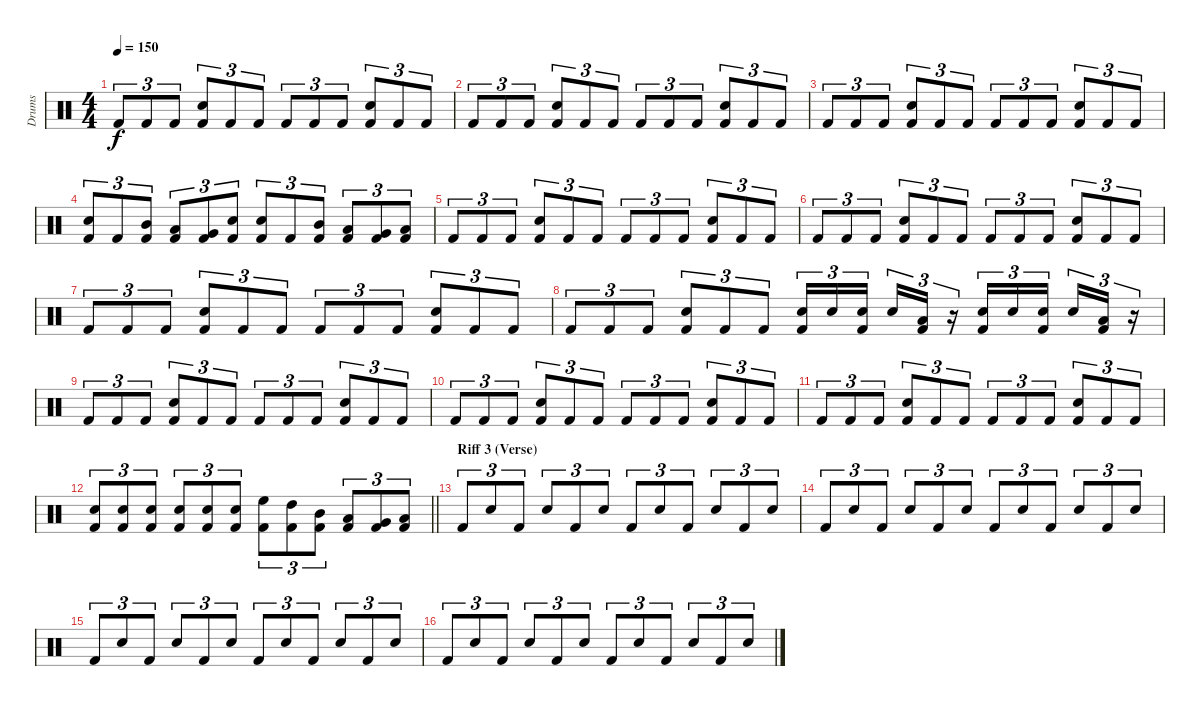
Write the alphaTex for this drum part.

\track ("Drums" "Drums") {instrument percussion}
\staff {score}
\articulation defaults
\ts (4 4)
\tempo 150
\clef neutral
\ks c "Kick (hit) 2".8{tu (3 2) dy f} "Kick (hit) 2".8{tu (3 2)} "Kick (hit) 2".8{tu (3 2)}
("Snare (hit) 2" "Kick (hit) 2").8{tu (3 2)} "Kick (hit) 2".8{tu (3 2)} "Kick (hit) 2".8{tu (3 2)} "Kick (hit) 2".8{tu (3 2)} "Kick (hit) 2".8{tu (3 2)} "Kick (hit) 2".8{tu (3 2)} ("Snare (hit) 2" "Kick (hit) 2").8{tu (3 2)} "Kick (hit) 2".8{tu (3 2)} "Kick (hit) 2".8{tu (3 2)} |
"Kick (hit) 2".8{tu (3 2)} "Kick (hit) 2".8{tu (3 2)} "Kick (hit) 2".8{tu (3 2)} ("Snare (hit) 2" "Kick (hit) 2").8{tu (3 2)} "Kick (hit) 2".8{tu (3 2)} "Kick (hit) 2".8{tu (3 2)} "Kick (hit) 2".8{tu (3 2)} "Kick (hit) 2".8{tu (3 2)} "Kick (hit) 2".8{tu (3 2)} ("Snare (hit) 2" "Kick (hit) 2").8{tu (3 2)} "Kick (hit) 2".8{tu (3 2)} "Kick (hit) 2".8{tu (3 2)} |
"Kick (hit) 2".8{tu (3 2)} "Kick (hit) 2".8{tu (3 2)} "Kick (hit) 2".8{tu (3 2)} ("Snare (hit) 2" "Kick (hit) 2").8{tu (3 2)} "Kick (hit) 2".8{tu (3 2)} "Kick (hit) 2".8{tu (3 2)} "Kick (hit) 2".8{tu (3 2)} "Kick (hit) 2".8{tu (3 2)} "Kick (hit) 2".8{tu (3 2)} ("Snare (hit) 2" "Kick (hit) 2").8{tu (3 2)} "Kick (hit) 2".8{tu (3 2)} "Kick (hit) 2".8{tu (3 2)} |
("Snare (hit) 2" "Kick (hit) 2").8{tu (3 2)} "Kick (hit) 2".8{tu (3 2)} ("Mid Tom (hit)" "Kick (hit) 2").8{tu (3 2)} ("Low Tom (hit)" "Kick (hit) 2").8{tu (3 2)} ("Very Low Tom (hit)" "Kick (hit) 2").8{tu (3 2)} ("Snare (hit) 2" "Kick (hit) 2").8{tu (3 2)} ("Snare (hit) 2" "Kick (hit) 2").8{tu (3 2)} "Kick (hit) 2".8{tu (3 2)} ("Mid Tom (hit)" "Kick (hit) 2").8{tu (3 2)} ("Low Tom (hit)" "Kick (hit) 2").8{tu (3 2)} ("Very Low Tom (hit)" "Kick (hit) 2").8{tu (3 2)} ("Low Floor Tom (hit)" "Kick (hit) 2").8{tu (3 2)} |
"Kick (hit) 2".8{tu (3 2)} "Kick (hit) 2".8{tu (3 2)} "Kick (hit) 2".8{tu (3 2)} ("Snare (hit) 2" "Kick (hit) 2").8{tu (3 2)} "Kick (hit) 2".8{tu (3 2)} "Kick (hit) 2".8{tu (3 2)} "Kick (hit) 2".8{tu (3 2)} "Kick (hit) 2".8{tu (3 2)} "Kick (hit) 2".8{tu (3 2)} ("Snare (hit) 2" "Kick (hit) 2").8{tu (3 2)} "Kick (hit) 2".8{tu (3 2)} "Kick (hit) 2".8{tu (3 2)} |
"Kick (hit) 2".8{tu (3 2)} "Kick (hit) 2".8{tu (3 2)} "Kick (hit) 2".8{tu (3 2)} ("Snare (hit) 2" "Kick (hit) 2").8{tu (3 2)} "Kick (hit) 2".8{tu (3 2)} "Kick (hit) 2".8{tu (3 2)} "Kick (hit) 2".8{tu (3 2)} "Kick (hit) 2".8{tu (3 2)} "Kick (hit) 2".8{tu (3 2)} ("Snare (hit) 2" "Kick (hit) 2").8{tu (3 2)} "Kick (hit) 2".8{tu (3 2)} "Kick (hit) 2".8{tu (3 2)} |
"Kick (hit) 2".8{tu (3 2)} "Kick (hit) 2".8{tu (3 2)} "Kick (hit) 2".8{tu (3 2)} ("Snare (hit) 2" "Kick (hit) 2").8{tu (3 2)} "Kick (hit) 2".8{tu (3 2)} "Kick (hit) 2".8{tu (3 2)} "Kick (hit) 2".8{tu (3 2)} "Kick (hit) 2".8{tu (3 2)} "Kick (hit) 2".8{tu (3 2)} ("Snare (hit) 2" "Kick (hit) 2").8{tu (3 2)} "Kick (hit) 2".8{tu (3 2)} "Kick (hit) 2".8{tu (3 2)} |
"Kick (hit) 2".8{tu (3 2)} "Kick (hit) 2".8{tu (3 2)} "Kick (hit) 2".8{tu (3 2)} ("Snare (hit) 2" "Kick (hit) 2").8{tu (3 2)} "Kick (hit) 2".8{tu (3 2)} "Kick (hit) 2".8{tu (3 2)} ("Snare (hit) 2" "Kick (hit) 2").16{tu (3 2)} "Snare (hit) 2".16{tu (3 2)} ("Snare (hit) 2" "Kick (hit) 2").16{tu (3 2) beam splitsecondary} "Snare (hit) 2".16{tu (3 2)} ("Low Floor Tom (hit)" "Kick (hit) 2").16{tu (3 2)} r.16{tu (3 2)} ("Snare (hit) 2" "Kick (hit) 2").16{tu (3 2)} "Snare (hit) 2".16{tu (3 2)} ("Snare (hit) 2" "Kick (hit) 2").16{tu (3 2) beam splitsecondary} "Snare (hit) 2".16{tu (3 2)} ("Low Floor Tom (hit)" "Kick (hit) 2").16{tu (3 2)} r.16{tu (3 2)} |
"Kick (hit) 2".8{tu (3 2)} "Kick (hit) 2".8{tu (3 2)} "Kick (hit) 2".8{tu (3 2)} ("Snare (hit) 2" "Kick (hit) 2").8{tu (3 2)} "Kick (hit) 2".8{tu (3 2)} "Kick (hit) 2".8{tu (3 2)} "Kick (hit) 2".8{tu (3 2)} "Kick (hit) 2".8{tu (3 2)} "Kick (hit) 2".8{tu (3 2)} ("Snare (hit) 2" "Kick (hit) 2").8{tu (3 2)} "Kick (hit) 2".8{tu (3 2)} "Kick (hit) 2".8{tu (3 2)} |
"Kick (hit) 2".8{tu (3 2)} "Kick (hit) 2".8{tu (3 2)} "Kick (hit) 2".8{tu (3 2)} ("Snare (hit) 2" "Kick (hit) 2").8{tu (3 2)} "Kick (hit) 2".8{tu (3 2)} "Kick (hit) 2".8{tu (3 2)} "Kick (hit) 2".8{tu (3 2)} "Kick (hit) 2".8{tu (3 2)} "Kick (hit) 2".8{tu (3 2)} ("Snare (hit) 2" "Kick (hit) 2").8{tu (3 2)} "Kick (hit) 2".8{tu (3 2)} "Kick (hit) 2".8{tu (3 2)} |
"Kick (hit) 2".8{tu (3 2)} "Kick (hit) 2".8{tu (3 2)} "Kick (hit) 2".8{tu (3 2)} ("Snare (hit) 2" "Kick (hit) 2").8{tu (3 2)} "Kick (hit) 2".8{tu (3 2)} "Kick (hit) 2".8{tu (3 2)} "Kick (hit) 2".8{tu (3 2)} "Kick (hit) 2".8{tu (3 2)} "Kick (hit) 2".8{tu (3 2)} ("Snare (hit) 2" "Kick (hit) 2").8{tu (3 2)} "Kick (hit) 2".8{tu (3 2)} "Kick (hit) 2".8{tu (3 2)} |
\barLineRight lightlight
("Snare (hit) 2" "Kick (hit) 2").8{tu (3 2)} ("Snare (hit) 2" "Kick (hit) 2").8{tu (3 2)} ("Snare (hit) 2" "Kick (hit) 2").8{tu (3 2)} ("Snare (hit) 2" "Kick (hit) 2").8{tu (3 2)} ("Snare (hit) 2" "Kick (hit) 2").8{tu (3 2)} ("Snare (hit) 2" "Kick (hit) 2").8{tu (3 2)} ("High Floor Tom (hit)" "Kick (hit) 2").8{tu (3 2)} ("High Tom (hit)" "Kick (hit) 2").8{tu (3 2)} ("Mid Tom (hit)" "Kick (hit) 2").8{tu (3 2)} ("Low Tom (hit)" "Kick (hit) 2").8{tu (3 2)} ("Very Low Tom (hit)" "Kick (hit) 2").8{tu (3 2)} ("Low Floor Tom (hit)" "Kick (hit) 2").8{tu (3 2)} |
\section ("" "Riff 3 (Verse)")
"Kick (hit) 2".8{tu (3 2)} "Snare (hit) 2".8{tu (3 2)} "Kick (hit) 2".8{tu (3 2)} "Snare (hit) 2".8{tu (3 2)} "Kick (hit) 2".8{tu (3 2)} "Snare (hit) 2".8{tu (3 2)} "Kick (hit) 2".8{tu (3 2)} "Snare (hit) 2".8{tu (3 2)} "Kick (hit) 2".8{tu (3 2)} "Snare (hit) 2".8{tu (3 2)} "Kick (hit) 2".8{tu (3 2)} "Snare (hit) 2".8{tu (3 2)} |
"Kick (hit) 2".8{tu (3 2)} "Snare (hit) 2".8{tu (3 2)} "Kick (hit) 2".8{tu (3 2)} "Snare (hit) 2".8{tu (3 2)} "Kick (hit) 2".8{tu (3 2)} "Snare (hit) 2".8{tu (3 2)} "Kick (hit) 2".8{tu (3 2)} "Snare (hit) 2".8{tu (3 2)} "Kick (hit) 2".8{tu (3 2)} "Snare (hit) 2".8{tu (3 2)} "Kick (hit) 2".8{tu (3 2)} "Snare (hit) 2".8{tu (3 2)} |
"Kick (hit) 2".8{tu (3 2)} "Snare (hit) 2".8{tu (3 2)} "Kick (hit) 2".8{tu (3 2)} "Snare (hit) 2".8{tu (3 2)} "Kick (hit) 2".8{tu (3 2)} "Snare (hit) 2".8{tu (3 2)} "Kick (hit) 2".8{tu (3 2)} "Snare (hit) 2".8{tu (3 2)} "Kick (hit) 2".8{tu (3 2)} "Snare (hit) 2".8{tu (3 2)} "Kick (hit) 2".8{tu (3 2)} "Snare (hit) 2".8{tu (3 2)} |
"Kick (hit) 2".8{tu (3 2)} "Snare (hit) 2".8{tu (3 2)} "Kick (hit) 2".8{tu (3 2)} "Snare (hit) 2".8{tu (3 2)} "Kick (hit) 2".8{tu (3 2)} "Snare (hit) 2".8{tu (3 2)} "Kick (hit) 2".8{tu (3 2)} "Snare (hit) 2".8{tu (3 2)} "Kick (hit) 2".8{tu (3 2)} "Snare (hit) 2".8{tu (3 2)} "Kick (hit) 2".8{tu (3 2)} "Snare (hit) 2".8{tu (3 2)}
